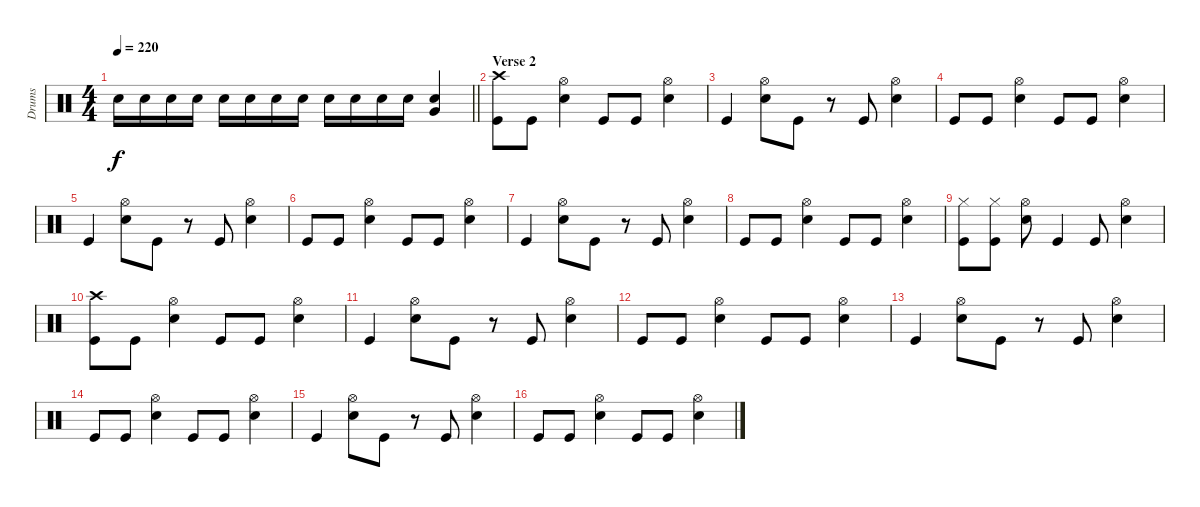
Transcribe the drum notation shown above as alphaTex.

\track ("Drums" "Drums") {instrument percussion}
\staff {score}
\articulation defaults
\ts (4 4)
\tempo 220
\clef neutral
\barLineRight lightlight
\ks c "Snare (hit) 2".16{dy f} "Snare (hit) 2".16 "Snare (hit) 2".16 "Snare (hit) 2".16 "Snare (hit) 2".16 "Snare (hit) 2".16 "Snare (hit) 2".16 "Snare (hit) 2".16 "Snare (hit) 2".16 "Snare (hit) 2".16 "Snare (hit) 2".16 "Snare (hit) 2".16
("Snare (hit) 2" "Very Low Tom (hit)").4 |
\section ("" "Verse 2")
("Crash high (hit)" "Kick (hit)").8 "Kick (hit)".8 ("Hi-Hat (open)" "Snare (hit) 2").4 "Kick (hit)".8 "Kick (hit)".8 ("Hi-Hat (open)" "Snare (hit) 2").4 |
"Kick (hit)".4 ("Hi-Hat (open)" "Snare (hit) 2").8 "Kick (hit)".8 r.8 "Kick (hit)".8 ("Hi-Hat (open)" "Snare (hit) 2").4 |
"Kick (hit)".8 "Kick (hit)".8 ("Hi-Hat (open)" "Snare (hit) 2").4 "Kick (hit)".8 "Kick (hit)".8 ("Hi-Hat (open)" "Snare (hit) 2").4 |
"Kick (hit)".4 ("Hi-Hat (open)" "Snare (hit) 2").8 "Kick (hit)".8 r.8 "Kick (hit)".8 ("Hi-Hat (open)" "Snare (hit) 2").4 |
"Kick (hit)".8 "Kick (hit)".8 ("Hi-Hat (open)" "Snare (hit) 2").4 "Kick (hit)".8 "Kick (hit)".8 ("Hi-Hat (open)" "Snare (hit) 2").4 |
"Kick (hit)".4 ("Hi-Hat (open)" "Snare (hit) 2").8 "Kick (hit)".8 r.8 "Kick (hit)".8 ("Hi-Hat (open)" "Snare (hit) 2").4 |
"Kick (hit)".8 "Kick (hit)".8 ("Hi-Hat (open)" "Snare (hit) 2").4 "Kick (hit)".8 "Kick (hit)".8 ("Hi-Hat (open)" "Snare (hit) 2").4 |
("Hi-Hat (closed)" "Kick (hit)").8 ("Hi-Hat (closed)" "Kick (hit)").8 ("Hi-Hat (open)" "Snare (hit) 2").8 "Kick (hit)".4 "Kick (hit)".8 ("Hi-Hat (open)" "Snare (hit) 2").4 |
("Crash high (hit)" "Kick (hit)").8 "Kick (hit)".8 ("Hi-Hat (open)" "Snare (hit) 2").4 "Kick (hit)".8 "Kick (hit)".8 ("Hi-Hat (open)" "Snare (hit) 2").4 |
"Kick (hit)".4 ("Hi-Hat (open)" "Snare (hit) 2").8 "Kick (hit)".8 r.8 "Kick (hit)".8 ("Hi-Hat (open)" "Snare (hit) 2").4 |
"Kick (hit)".8 "Kick (hit)".8 ("Hi-Hat (open)" "Snare (hit) 2").4 "Kick (hit)".8 "Kick (hit)".8 ("Hi-Hat (open)" "Snare (hit) 2").4 |
"Kick (hit)".4 ("Hi-Hat (open)" "Snare (hit) 2").8 "Kick (hit)".8 r.8 "Kick (hit)".8 ("Hi-Hat (open)" "Snare (hit) 2").4 |
"Kick (hit)".8 "Kick (hit)".8 ("Hi-Hat (open)" "Snare (hit) 2").4 "Kick (hit)".8 "Kick (hit)".8 ("Hi-Hat (open)" "Snare (hit) 2").4 |
"Kick (hit)".4 ("Hi-Hat (open)" "Snare (hit) 2").8 "Kick (hit)".8 r.8 "Kick (hit)".8 ("Hi-Hat (open)" "Snare (hit) 2").4 |
"Kick (hit)".8 "Kick (hit)".8 ("Hi-Hat (open)" "Snare (hit) 2").4 "Kick (hit)".8 "Kick (hit)".8 ("Hi-Hat (open)" "Snare (hit) 2").4
